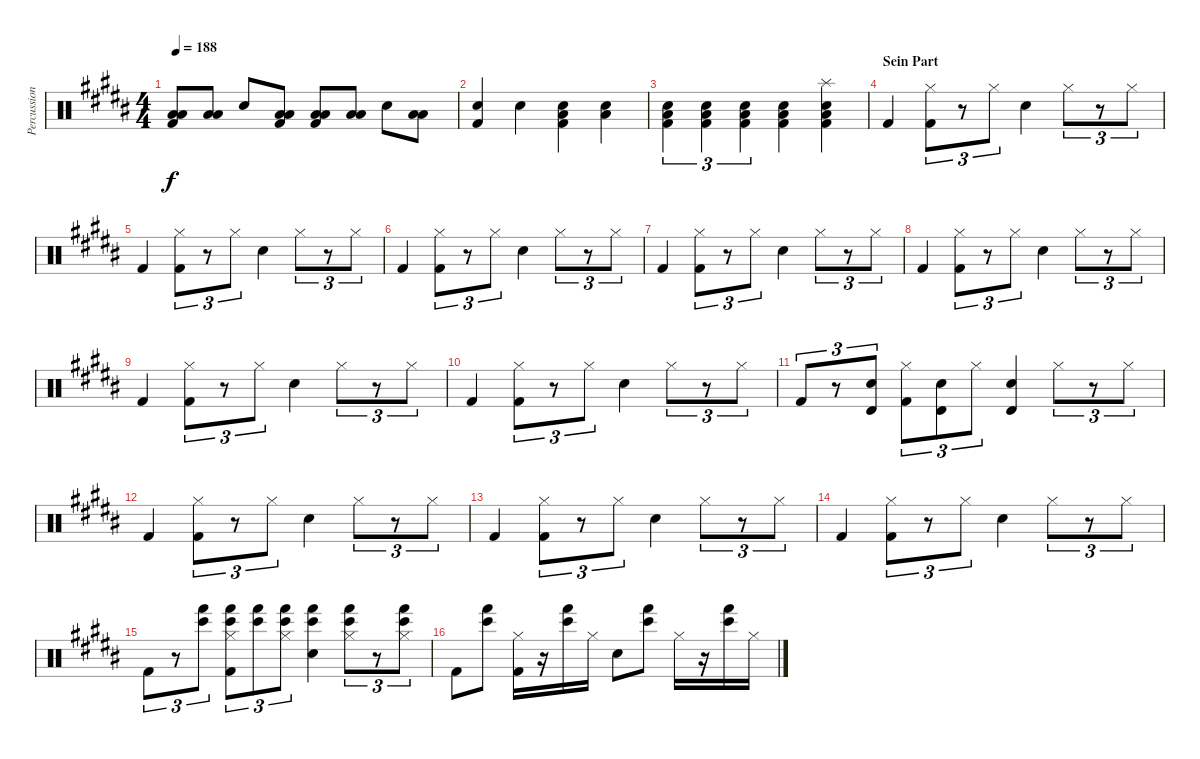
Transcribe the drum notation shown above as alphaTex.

\track ("Percussion" "Percussion") {instrument percussion}
\staff {score}
\articulation defaults
\ts (4 4)
\tempo 188
\clef neutral
\ks b
("Low Tom (hit)" "Low Floor Tom (hit)" "Kick (hit) 2").8{dy f} ("Low Tom (hit)" "Low Floor Tom (hit)").8 "Electric Snare (hit)".8 ("Low Tom (hit)" "Low Floor Tom (hit)" "Kick (hit) 2").8 ("Low Tom (hit)" "Low Floor Tom (hit)" "Kick (hit) 2").8 ("Low Tom (hit)" "Low Floor Tom (hit)").8 "Electric Snare (hit)".8 ("Low Tom (hit)" "Low Floor Tom (hit)").8 |
("Electric Snare (hit)" "Kick (hit) 2").4 "Electric Snare (hit)".4 ("Low Floor Tom (hit)" "Electric Snare (hit)" "Kick (hit) 2").4 ("Low Floor Tom (hit)" "Electric Snare (hit)").4 |
("Low Floor Tom (hit)" "Electric Snare (hit)" "Kick (hit) 2").4{tu (3 2)} ("Low Floor Tom (hit)" "Electric Snare (hit)" "Kick (hit) 2").4{tu (3 2)} ("Low Floor Tom (hit)" "Electric Snare (hit)" "Kick (hit) 2").4{tu (3 2)} ("Low Floor Tom (hit)" "Electric Snare (hit)" "Kick (hit) 2").4 ("Splash (hit)" "Low Floor Tom (hit)" "Electric Snare (hit)" "Kick (hit) 2").4 |
\section ("" "Sein Part")
"Kick (hit) 2".4 ("Hi-Hat (closed)" "Kick (hit) 2").8{tu (3 2)} r.8{tu (3 2)} "Hi-Hat (closed)".8{tu (3 2)} "Electric Snare (hit)".4 "Hi-Hat (closed)".8{tu (3 2)} r.8{tu (3 2)} "Hi-Hat (closed)".8{tu (3 2)} |
"Kick (hit) 2".4 ("Hi-Hat (closed)" "Kick (hit) 2").8{tu (3 2)} r.8{tu (3 2)} "Hi-Hat (closed)".8{tu (3 2)} "Electric Snare (hit)".4 "Hi-Hat (closed)".8{tu (3 2)} r.8{tu (3 2)} "Hi-Hat (closed)".8{tu (3 2)} |
"Kick (hit) 2".4 ("Hi-Hat (closed)" "Kick (hit) 2").8{tu (3 2)} r.8{tu (3 2)} "Hi-Hat (closed)".8{tu (3 2)} "Electric Snare (hit)".4 "Hi-Hat (closed)".8{tu (3 2)} r.8{tu (3 2)} "Hi-Hat (closed)".8{tu (3 2)} |
"Kick (hit) 2".4 ("Hi-Hat (closed)" "Kick (hit) 2").8{tu (3 2)} r.8{tu (3 2)} "Hi-Hat (closed)".8{tu (3 2)} "Electric Snare (hit)".4 "Hi-Hat (closed)".8{tu (3 2)} r.8{tu (3 2)} "Hi-Hat (closed)".8{tu (3 2)} |
"Kick (hit) 2".4 ("Hi-Hat (closed)" "Kick (hit) 2").8{tu (3 2)} r.8{tu (3 2)} "Hi-Hat (closed)".8{tu (3 2)} "Electric Snare (hit)".4 "Hi-Hat (closed)".8{tu (3 2)} r.8{tu (3 2)} "Hi-Hat (closed)".8{tu (3 2)} |
"Kick (hit) 2".4 ("Hi-Hat (closed)" "Kick (hit) 2").8{tu (3 2)} r.8{tu (3 2)} "Hi-Hat (closed)".8{tu (3 2)} "Electric Snare (hit)".4 "Hi-Hat (closed)".8{tu (3 2)} r.8{tu (3 2)} "Hi-Hat (closed)".8{tu (3 2)} |
"Kick (hit) 2".4 ("Hi-Hat (closed)" "Kick (hit) 2").8{tu (3 2)} r.8{tu (3 2)} "Hi-Hat (closed)".8{tu (3 2)} "Electric Snare (hit)".4 "Hi-Hat (closed)".8{tu (3 2)} r.8{tu (3 2)} "Hi-Hat (closed)".8{tu (3 2)} |
"Kick (hit) 2".8{tu (3 2)} r.8{tu (3 2)} ("Timbale high (hit)" "Electric Snare (hit)").8{tu (3 2)} ("Hi-Hat (closed)" "Kick (hit) 2").8{tu (3 2)} ("Timbale high (hit)" "Electric Snare (hit)").8{tu (3 2)} "Hi-Hat (closed)".8{tu (3 2)} ("Timbale high (hit)" "Electric Snare (hit)").4 "Hi-Hat (closed)".8{tu (3 2)} r.8{tu (3 2)} "Hi-Hat (closed)".8{tu (3 2)} |
"Kick (hit) 2".4 ("Hi-Hat (closed)" "Kick (hit) 2").8{tu (3 2)} r.8{tu (3 2)} "Hi-Hat (closed)".8{tu (3 2)} "Electric Snare (hit)".4 "Hi-Hat (closed)".8{tu (3 2)} r.8{tu (3 2)} "Hi-Hat (closed)".8{tu (3 2)} |
"Kick (hit) 2".4 ("Hi-Hat (closed)" "Kick (hit) 2").8{tu (3 2)} r.8{tu (3 2)} "Hi-Hat (closed)".8{tu (3 2)} "Electric Snare (hit)".4 "Hi-Hat (closed)".8{tu (3 2)} r.8{tu (3 2)} "Hi-Hat (closed)".8{tu (3 2)} |
"Kick (hit) 2".4 ("Hi-Hat (closed)" "Kick (hit) 2").8{tu (3 2)} r.8{tu (3 2)} "Hi-Hat (closed)".8{tu (3 2)} "Electric Snare (hit)".4 "Hi-Hat (closed)".8{tu (3 2)} r.8{tu (3 2)} "Hi-Hat (closed)".8{tu (3 2)} |
"Kick (hit) 2".8{tu (3 2)} r.8{tu (3 2)} ("Hand (hit)" "Bongo High (hit)").8{tu (3 2)} ("Hand (hit)" "Bongo High (hit)" "Hi-Hat (closed)" "Kick (hit) 2").8{tu (3 2)} ("Hand (hit)" "Bongo High (hit)").8{tu (3 2)} ("Hand (hit)" "Bongo High (hit)" "Hi-Hat (closed)").8{tu (3 2)} ("Hand (hit)" "Bongo High (hit)" "Electric Snare (hit)").4 ("Hand (hit)" "Bongo High (hit)" "Hi-Hat (closed)").8{tu (3 2)} r.8{tu (3 2)} ("Hand (hit)" "Bongo High (hit)" "Hi-Hat (closed)").8{tu (3 2)} |
"Kick (hit) 2".8 ("Hand (hit)" "Bongo High (hit)").8 ("Hi-Hat (closed)" "Kick (hit) 2").16 r.16 ("Hand (hit)" "Bongo High (hit)").16 "Hi-Hat (closed)".16 "Electric Snare (hit)".8 ("Hand (hit)" "Bongo High (hit)").8 "Hi-Hat (closed)".16 r.16 ("Hand (hit)" "Bongo High (hit)").16 "Hi-Hat (closed)".16
